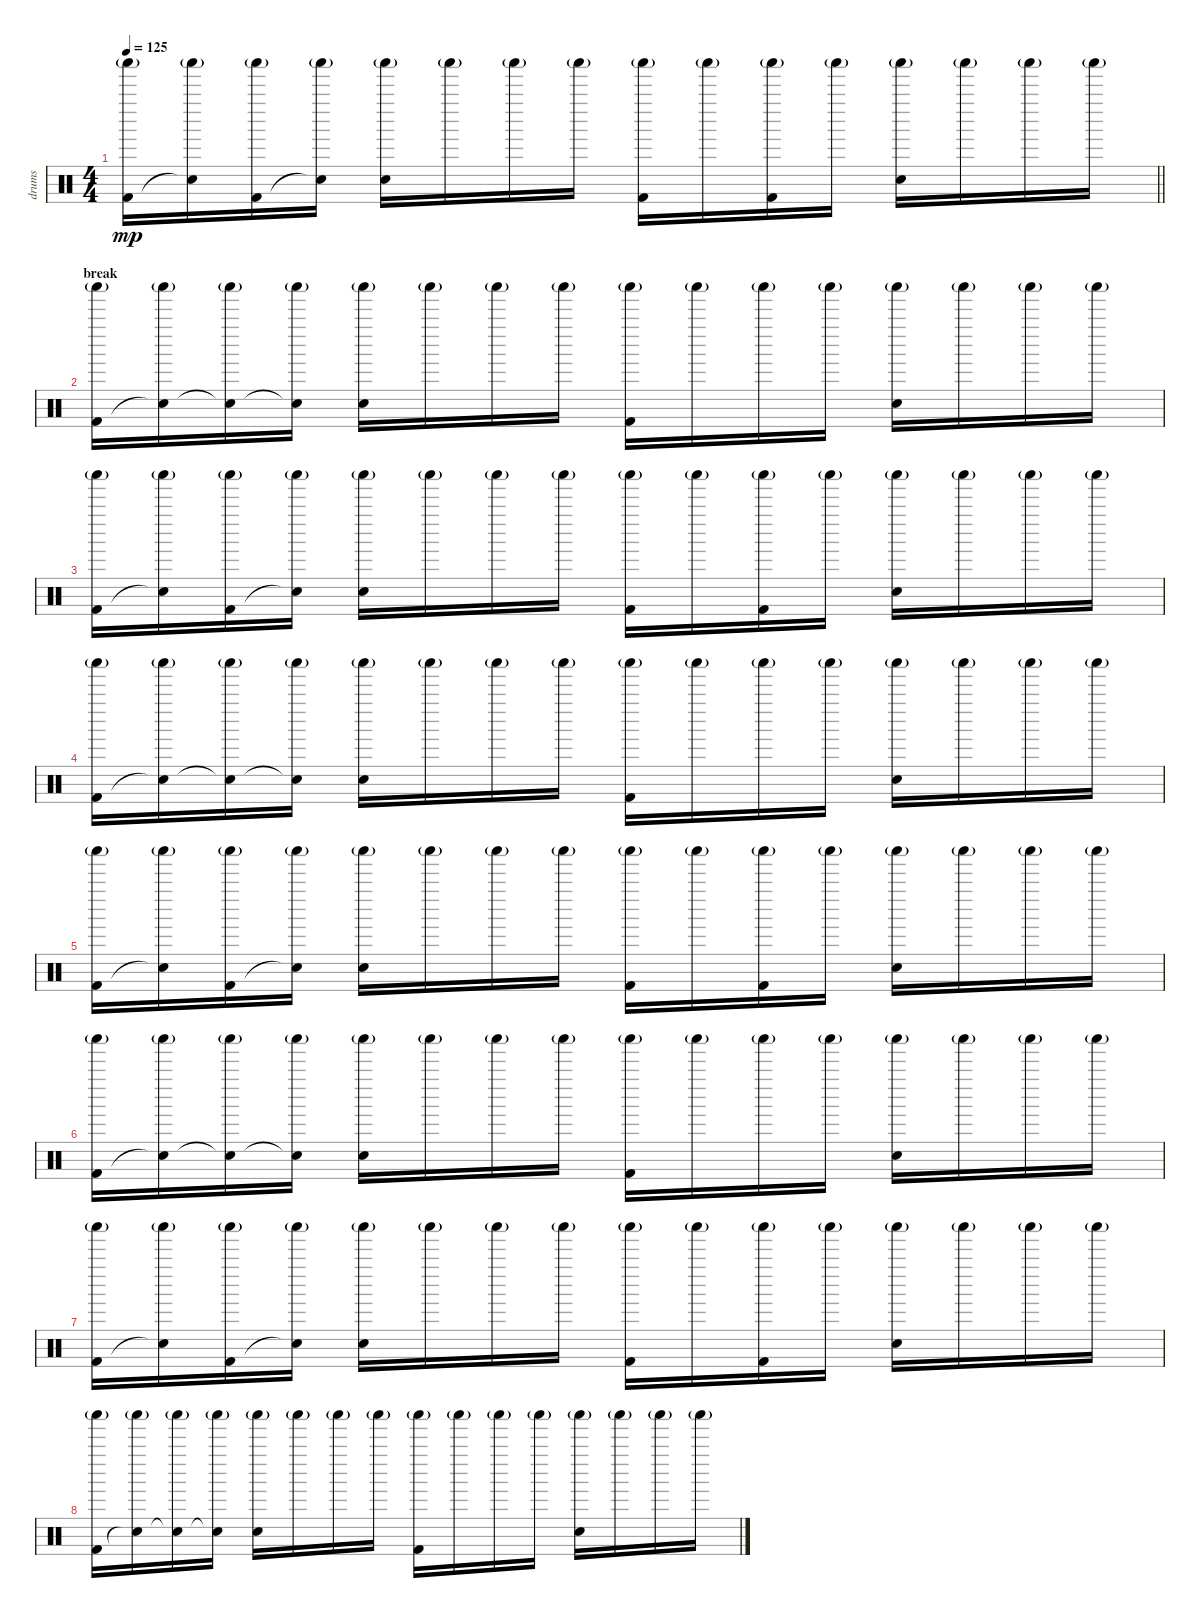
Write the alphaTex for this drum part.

\track ("drums" "drums") {instrument percussion}
\staff {score}
\articulation defaults
\ts (4 4)
\tempo 125
\clef neutral
\barLineRight lightlight
\ks c
("Shaker (hit)"{g} "Kick (hit) 2").16{dy mp} ("Shaker (hit)"{g} "Snare (hit)"{t}).16 ("Shaker (hit)"{g} "Kick (hit) 2").16 ("Shaker (hit)"{g} "Snare (hit)"{t}).16 ("Shaker (hit)"{g} "Snare (hit) 2").16 "Shaker (hit)"{g}.16 "Shaker (hit)"{g}.16 "Shaker (hit)"{g}.16 ("Shaker (hit)"{g} "Kick (hit) 2").16 "Shaker (hit)"{g}.16 ("Shaker (hit)"{g} "Kick (hit) 2").16 "Shaker (hit)"{g}.16 ("Shaker (hit)"{g} "Snare (hit) 2").16 "Shaker (hit)"{g}.16 "Shaker (hit)"{g}.16 "Shaker (hit)"{g}.16 |
\section ("" "break")
("Shaker (hit)"{g} "Kick (hit) 2").16 ("Shaker (hit)"{g} "Snare (hit)"{t}).16 ("Shaker (hit)"{g} "Snare (hit)"{t}).16 ("Shaker (hit)"{g} "Snare (hit)"{t}).16 ("Shaker (hit)"{g} "Snare (hit) 2").16 "Shaker (hit)"{g}.16 "Shaker (hit)"{g}.16 "Shaker (hit)"{g}.16 ("Shaker (hit)"{g} "Kick (hit) 2").16 "Shaker (hit)"{g}.16 "Shaker (hit)"{g}.16 "Shaker (hit)"{g}.16 ("Shaker (hit)"{g} "Snare (hit) 2").16 "Shaker (hit)"{g}.16 "Shaker (hit)"{g}.16 "Shaker (hit)"{g}.16 |
("Shaker (hit)"{g} "Kick (hit) 2").16 ("Shaker (hit)"{g} "Snare (hit)"{t}).16 ("Shaker (hit)"{g} "Kick (hit) 2").16 ("Shaker (hit)"{g} "Snare (hit)"{t}).16 ("Shaker (hit)"{g} "Snare (hit) 2").16 "Shaker (hit)"{g}.16 "Shaker (hit)"{g}.16 "Shaker (hit)"{g}.16 ("Shaker (hit)"{g} "Kick (hit) 2").16 "Shaker (hit)"{g}.16 ("Shaker (hit)"{g} "Kick (hit) 2").16 "Shaker (hit)"{g}.16 ("Shaker (hit)"{g} "Snare (hit) 2").16 "Shaker (hit)"{g}.16 "Shaker (hit)"{g}.16 "Shaker (hit)"{g}.16 |
("Shaker (hit)"{g} "Kick (hit) 2").16 ("Shaker (hit)"{g} "Snare (hit)"{t}).16 ("Shaker (hit)"{g} "Snare (hit)"{t}).16 ("Shaker (hit)"{g} "Snare (hit)"{t}).16 ("Shaker (hit)"{g} "Snare (hit) 2").16 "Shaker (hit)"{g}.16 "Shaker (hit)"{g}.16 "Shaker (hit)"{g}.16 ("Shaker (hit)"{g} "Kick (hit) 2").16 "Shaker (hit)"{g}.16 "Shaker (hit)"{g}.16 "Shaker (hit)"{g}.16 ("Shaker (hit)"{g} "Snare (hit) 2").16 "Shaker (hit)"{g}.16 "Shaker (hit)"{g}.16 "Shaker (hit)"{g}.16 |
("Shaker (hit)"{g} "Kick (hit) 2").16 ("Shaker (hit)"{g} "Snare (hit)"{t}).16 ("Shaker (hit)"{g} "Kick (hit) 2").16 ("Shaker (hit)"{g} "Snare (hit)"{t}).16 ("Shaker (hit)"{g} "Snare (hit) 2").16 "Shaker (hit)"{g}.16 "Shaker (hit)"{g}.16 "Shaker (hit)"{g}.16 ("Shaker (hit)"{g} "Kick (hit) 2").16 "Shaker (hit)"{g}.16 ("Shaker (hit)"{g} "Kick (hit) 2").16 "Shaker (hit)"{g}.16 ("Shaker (hit)"{g} "Snare (hit) 2").16 "Shaker (hit)"{g}.16 "Shaker (hit)"{g}.16 "Shaker (hit)"{g}.16 |
("Shaker (hit)"{g} "Kick (hit) 2").16 ("Shaker (hit)"{g} "Snare (hit)"{t}).16 ("Shaker (hit)"{g} "Snare (hit)"{t}).16 ("Shaker (hit)"{g} "Snare (hit)"{t}).16 ("Shaker (hit)"{g} "Snare (hit) 2").16 "Shaker (hit)"{g}.16 "Shaker (hit)"{g}.16 "Shaker (hit)"{g}.16 ("Shaker (hit)"{g} "Kick (hit) 2").16 "Shaker (hit)"{g}.16 "Shaker (hit)"{g}.16 "Shaker (hit)"{g}.16 ("Shaker (hit)"{g} "Snare (hit) 2").16 "Shaker (hit)"{g}.16 "Shaker (hit)"{g}.16 "Shaker (hit)"{g}.16 |
("Shaker (hit)"{g} "Kick (hit) 2").16 ("Shaker (hit)"{g} "Snare (hit)"{t}).16 ("Shaker (hit)"{g} "Kick (hit) 2").16 ("Shaker (hit)"{g} "Snare (hit)"{t}).16 ("Shaker (hit)"{g} "Snare (hit) 2").16 "Shaker (hit)"{g}.16 "Shaker (hit)"{g}.16 "Shaker (hit)"{g}.16 ("Shaker (hit)"{g} "Kick (hit) 2").16 "Shaker (hit)"{g}.16 ("Shaker (hit)"{g} "Kick (hit) 2").16 "Shaker (hit)"{g}.16 ("Shaker (hit)"{g} "Snare (hit) 2").16 "Shaker (hit)"{g}.16 "Shaker (hit)"{g}.16 "Shaker (hit)"{g}.16 |
("Shaker (hit)"{g} "Kick (hit) 2").16 ("Shaker (hit)"{g} "Snare (hit)"{t}).16 ("Shaker (hit)"{g} "Snare (hit)"{t}).16 ("Shaker (hit)"{g} "Snare (hit)"{t}).16 ("Shaker (hit)"{g} "Snare (hit) 2").16 "Shaker (hit)"{g}.16 "Shaker (hit)"{g}.16 "Shaker (hit)"{g}.16 ("Shaker (hit)"{g} "Kick (hit) 2").16 "Shaker (hit)"{g}.16 "Shaker (hit)"{g}.16 "Shaker (hit)"{g}.16 ("Shaker (hit)"{g} "Snare (hit) 2").16 "Shaker (hit)"{g}.16 "Shaker (hit)"{g}.16 "Shaker (hit)"{g}.16
